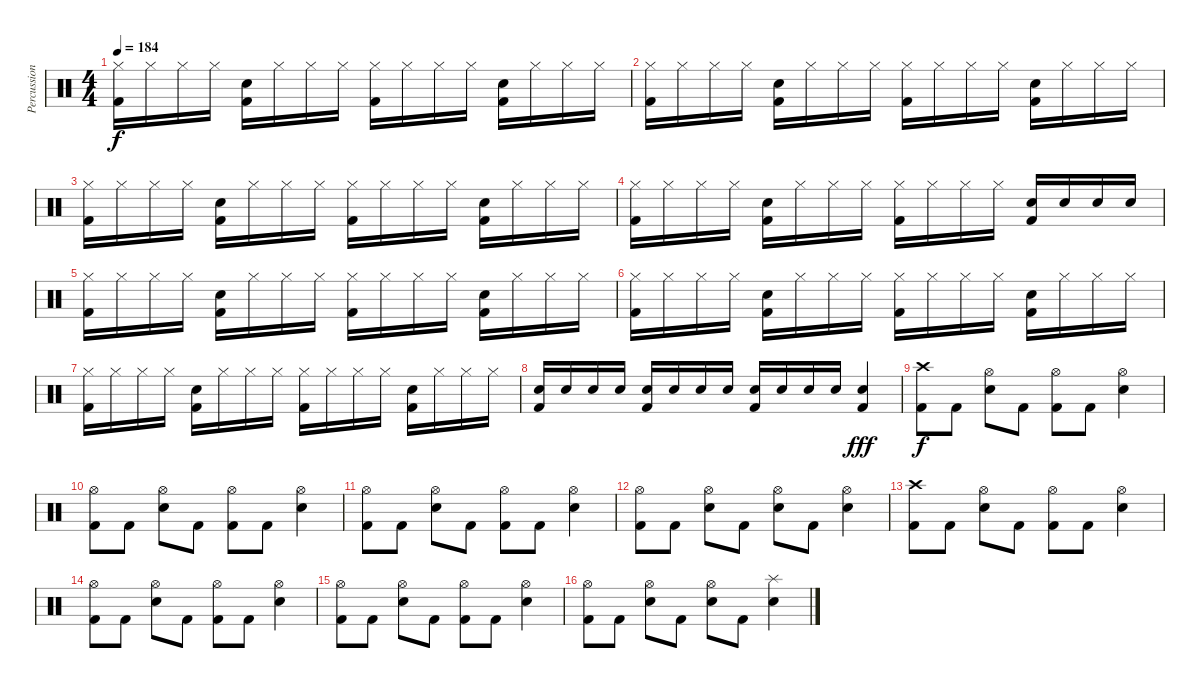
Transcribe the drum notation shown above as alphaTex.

\track ("Percussion" "Percussion") {instrument percussion}
\staff {score}
\articulation defaults
\ts (4 4)
\tempo 184
\clef neutral
\ks c
("Hi-Hat (closed)" "Kick (hit) 2").16{dy f} "Hi-Hat (closed)".16 "Hi-Hat (closed)".16 "Hi-Hat (closed)".16 ("Electric Snare (hit)" "Kick (hit) 2").16 "Hi-Hat (closed)".16 "Hi-Hat (closed)".16 "Hi-Hat (closed)".16 ("Hi-Hat (closed)" "Kick (hit) 2").16 "Hi-Hat (closed)".16 "Hi-Hat (closed)".16 "Hi-Hat (closed)".16 ("Electric Snare (hit)" "Kick (hit) 2").16 "Hi-Hat (closed)".16 "Hi-Hat (closed)".16 "Hi-Hat (closed)".16 |
("Hi-Hat (closed)" "Kick (hit) 2").16 "Hi-Hat (closed)".16 "Hi-Hat (closed)".16 "Hi-Hat (closed)".16 ("Electric Snare (hit)" "Kick (hit) 2").16 "Hi-Hat (closed)".16 "Hi-Hat (closed)".16 "Hi-Hat (closed)".16 ("Hi-Hat (closed)" "Kick (hit) 2").16 "Hi-Hat (closed)".16 "Hi-Hat (closed)".16 "Hi-Hat (closed)".16 ("Electric Snare (hit)" "Kick (hit) 2").16 "Hi-Hat (closed)".16 "Hi-Hat (closed)".16 "Hi-Hat (closed)".16 |
("Hi-Hat (closed)" "Kick (hit) 2").16 "Hi-Hat (closed)".16 "Hi-Hat (closed)".16 "Hi-Hat (closed)".16 ("Electric Snare (hit)" "Kick (hit) 2").16 "Hi-Hat (closed)".16 "Hi-Hat (closed)".16 "Hi-Hat (closed)".16 ("Hi-Hat (closed)" "Kick (hit) 2").16 "Hi-Hat (closed)".16 "Hi-Hat (closed)".16 "Hi-Hat (closed)".16 ("Electric Snare (hit)" "Kick (hit) 2").16 "Hi-Hat (closed)".16 "Hi-Hat (closed)".16 "Hi-Hat (closed)".16 |
("Hi-Hat (closed)" "Kick (hit) 2").16 "Hi-Hat (closed)".16 "Hi-Hat (closed)".16 "Hi-Hat (closed)".16 ("Electric Snare (hit)" "Kick (hit) 2").16 "Hi-Hat (closed)".16 "Hi-Hat (closed)".16 "Hi-Hat (closed)".16 ("Hi-Hat (closed)" "Kick (hit) 2").16 "Hi-Hat (closed)".16 "Hi-Hat (closed)".16 "Hi-Hat (closed)".16 ("Electric Snare (hit)" "Kick (hit) 2").16 "Electric Snare (hit)".16 "Electric Snare (hit)".16 "Electric Snare (hit)".16 |
("Hi-Hat (closed)" "Kick (hit) 2").16 "Hi-Hat (closed)".16 "Hi-Hat (closed)".16 "Hi-Hat (closed)".16 ("Electric Snare (hit)" "Kick (hit) 2").16 "Hi-Hat (closed)".16 "Hi-Hat (closed)".16 "Hi-Hat (closed)".16 ("Hi-Hat (closed)" "Kick (hit) 2").16 "Hi-Hat (closed)".16 "Hi-Hat (closed)".16 "Hi-Hat (closed)".16 ("Electric Snare (hit)" "Kick (hit) 2").16 "Hi-Hat (closed)".16 "Hi-Hat (closed)".16 "Hi-Hat (closed)".16 |
("Hi-Hat (closed)" "Kick (hit) 2").16 "Hi-Hat (closed)".16 "Hi-Hat (closed)".16 "Hi-Hat (closed)".16 ("Electric Snare (hit)" "Kick (hit) 2").16 "Hi-Hat (closed)".16 "Hi-Hat (closed)".16 "Hi-Hat (closed)".16 ("Hi-Hat (closed)" "Kick (hit) 2").16 "Hi-Hat (closed)".16 "Hi-Hat (closed)".16 "Hi-Hat (closed)".16 ("Electric Snare (hit)" "Kick (hit) 2").16 "Hi-Hat (closed)".16 "Hi-Hat (closed)".16 "Hi-Hat (closed)".16 |
("Hi-Hat (closed)" "Kick (hit) 2").16 "Hi-Hat (closed)".16 "Hi-Hat (closed)".16 "Hi-Hat (closed)".16 ("Electric Snare (hit)" "Kick (hit) 2").16 "Hi-Hat (closed)".16 "Hi-Hat (closed)".16 "Hi-Hat (closed)".16 ("Hi-Hat (closed)" "Kick (hit) 2").16 "Hi-Hat (closed)".16 "Hi-Hat (closed)".16 "Hi-Hat (closed)".16 ("Electric Snare (hit)" "Kick (hit) 2").16 "Hi-Hat (closed)".16 "Hi-Hat (closed)".16 "Hi-Hat (closed)".16 |
("Electric Snare (hit)" "Kick (hit) 2").16 "Electric Snare (hit)".16 "Electric Snare (hit)".16 "Electric Snare (hit)".16 ("Electric Snare (hit)" "Kick (hit) 2").16 "Electric Snare (hit)".16 "Electric Snare (hit)".16 "Electric Snare (hit)".16 ("Electric Snare (hit)" "Kick (hit) 2").16 "Electric Snare (hit)".16 "Electric Snare (hit)".16 "Electric Snare (hit)".16 ("Electric Snare (hit)" "Kick (hit) 2").4{dy fff} |
("Crash high (hit)" "Kick (hit) 2").8{dy f} "Kick (hit) 2".8 ("Hi-Hat (open)" "Electric Snare (hit)").8 "Kick (hit) 2".8 ("Hi-Hat (open)" "Kick (hit) 2").8 "Kick (hit) 2".8 ("Hi-Hat (open)" "Electric Snare (hit)").4 |
("Hi-Hat (open)" "Kick (hit) 2").8 "Kick (hit) 2".8 ("Hi-Hat (open)" "Electric Snare (hit)").8 "Kick (hit) 2".8 ("Hi-Hat (open)" "Kick (hit) 2").8 "Kick (hit) 2".8 ("Hi-Hat (open)" "Electric Snare (hit)").4 |
("Hi-Hat (open)" "Kick (hit) 2").8 "Kick (hit) 2".8 ("Hi-Hat (open)" "Electric Snare (hit)").8 "Kick (hit) 2".8 ("Hi-Hat (open)" "Kick (hit) 2").8 "Kick (hit) 2".8 ("Hi-Hat (open)" "Electric Snare (hit)").4 |
("Hi-Hat (open)" "Kick (hit) 2").8 "Kick (hit) 2".8 ("Hi-Hat (open)" "Electric Snare (hit)").8 "Kick (hit) 2".8 ("Hi-Hat (open)" "Electric Snare (hit)").8 "Kick (hit) 2".8 ("Hi-Hat (open)" "Electric Snare (hit)").4 |
("Crash high (hit)" "Kick (hit) 2").8 "Kick (hit) 2".8 ("Hi-Hat (open)" "Electric Snare (hit)").8 "Kick (hit) 2".8 ("Hi-Hat (open)" "Kick (hit) 2").8 "Kick (hit) 2".8 ("Hi-Hat (open)" "Electric Snare (hit)").4 |
("Hi-Hat (open)" "Kick (hit) 2").8 "Kick (hit) 2".8 ("Hi-Hat (open)" "Electric Snare (hit)").8 "Kick (hit) 2".8 ("Hi-Hat (open)" "Kick (hit) 2").8 "Kick (hit) 2".8 ("Hi-Hat (open)" "Electric Snare (hit)").4 |
("Hi-Hat (open)" "Kick (hit) 2").8 "Kick (hit) 2".8 ("Hi-Hat (open)" "Electric Snare (hit)").8 "Kick (hit) 2".8 ("Hi-Hat (open)" "Kick (hit) 2").8 "Kick (hit) 2".8 ("Hi-Hat (open)" "Electric Snare (hit)").4 |
("Hi-Hat (open)" "Kick (hit) 2").8 "Kick (hit) 2".8 ("Hi-Hat (open)" "Electric Snare (hit)").8 "Kick (hit) 2".8 ("Hi-Hat (open)" "Electric Snare (hit)").8 "Kick (hit) 2".8 ("Splash (hit)" "Electric Snare (hit)").4
